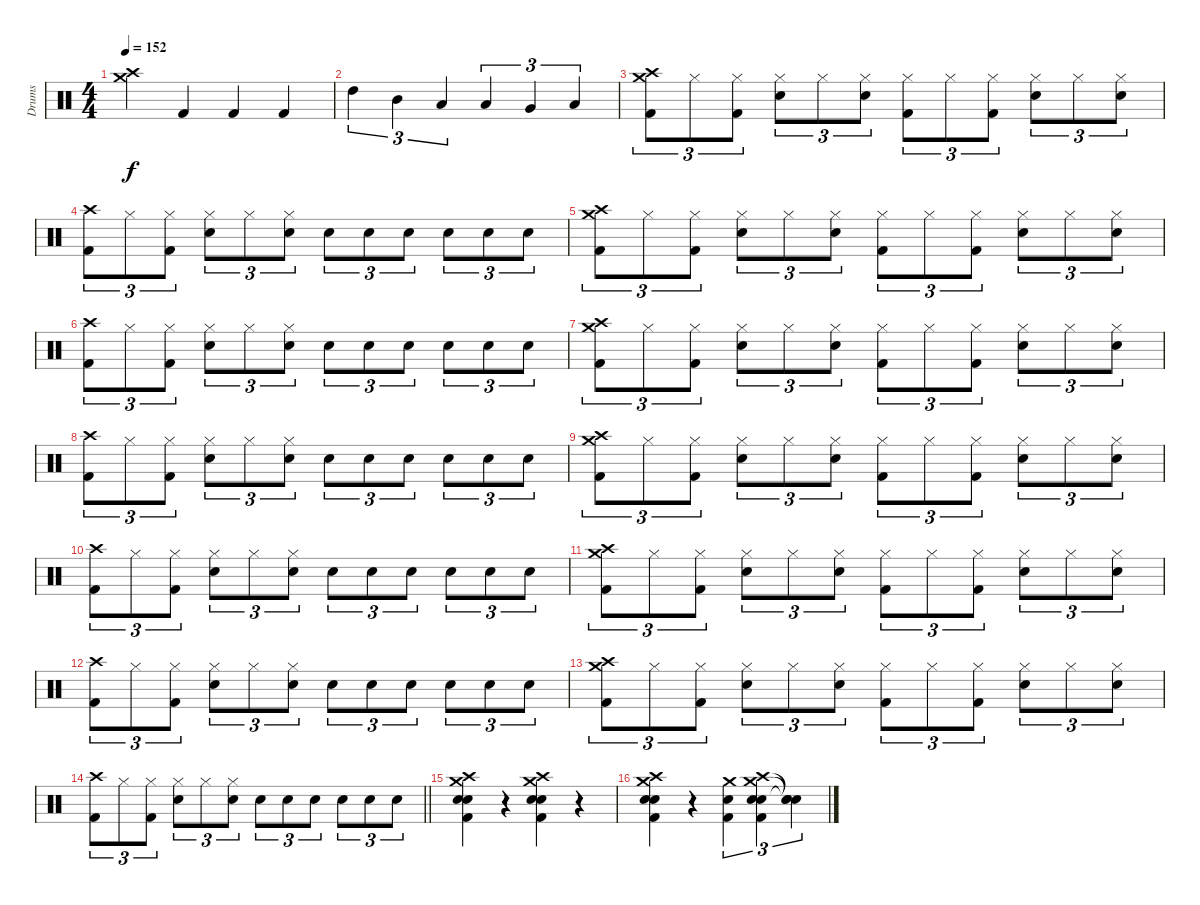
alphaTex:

\track ("Drums" "Drums") {instrument percussion}
\staff {score}
\articulation defaults
\ts (4 4)
\tempo 152
\clef neutral
\ks c
("Crash medium (hit)" "Crash high (hit)").4{dy f} "Kick (hit) 2".4 "Kick (hit) 2".4 "Kick (hit) 2".4 |
"High Tom (hit)".4{tu (3 2)} "Mid Tom (hit)".4{tu (3 2)} "Low Tom (hit)".4{tu (3 2)} "Low Tom (hit)".4{tu (3 2)} "Very Low Tom (hit)".4{tu (3 2)} "Low Floor Tom (hit)".4{tu (3 2)} |
("Crash medium (hit)" "Crash high (hit)" "Kick (hit) 2").8{tu (3 2)} "Hi-Hat (closed)".8{tu (3 2)} ("Hi-Hat (closed)" "Kick (hit) 2").8{tu (3 2)} ("Hi-Hat (closed)" "Snare (hit) 2").8{tu (3 2)} "Hi-Hat (closed)".8{tu (3 2)} ("Hi-Hat (closed)" "Snare (hit) 2").8{tu (3 2)} ("Hi-Hat (closed)" "Kick (hit) 2").8{tu (3 2)} "Hi-Hat (closed)".8{tu (3 2)} ("Hi-Hat (closed)" "Kick (hit) 2").8{tu (3 2)} ("Hi-Hat (closed)" "Snare (hit) 2").8{tu (3 2)} "Hi-Hat (closed)".8{tu (3 2)} ("Hi-Hat (closed)" "Snare (hit) 2").8{tu (3 2)} |
("Crash high (hit)" "Kick (hit) 2").8{tu (3 2)} "Hi-Hat (closed)".8{tu (3 2)} ("Hi-Hat (closed)" "Kick (hit) 2").8{tu (3 2)} ("Hi-Hat (closed)" "Snare (hit) 2").8{tu (3 2)} "Hi-Hat (closed)".8{tu (3 2)} ("Hi-Hat (closed)" "Snare (hit) 2").8{tu (3 2)} "Snare (hit) 2".8{tu (3 2)} "Snare (hit) 2".8{tu (3 2)} "Snare (hit) 2".8{tu (3 2)} "Snare (hit) 2".8{tu (3 2)} "Snare (hit) 2".8{tu (3 2)} "Snare (hit) 2".8{tu (3 2)} |
("Crash medium (hit)" "Crash high (hit)" "Kick (hit) 2").8{tu (3 2)} "Hi-Hat (closed)".8{tu (3 2)} ("Hi-Hat (closed)" "Kick (hit) 2").8{tu (3 2)} ("Hi-Hat (closed)" "Snare (hit) 2").8{tu (3 2)} "Hi-Hat (closed)".8{tu (3 2)} ("Hi-Hat (closed)" "Snare (hit) 2").8{tu (3 2)} ("Hi-Hat (closed)" "Kick (hit) 2").8{tu (3 2)} "Hi-Hat (closed)".8{tu (3 2)} ("Hi-Hat (closed)" "Kick (hit) 2").8{tu (3 2)} ("Hi-Hat (closed)" "Snare (hit) 2").8{tu (3 2)} "Hi-Hat (closed)".8{tu (3 2)} ("Hi-Hat (closed)" "Snare (hit) 2").8{tu (3 2)} |
("Crash high (hit)" "Kick (hit) 2").8{tu (3 2)} "Hi-Hat (closed)".8{tu (3 2)} ("Hi-Hat (closed)" "Kick (hit) 2").8{tu (3 2)} ("Hi-Hat (closed)" "Snare (hit) 2").8{tu (3 2)} "Hi-Hat (closed)".8{tu (3 2)} ("Hi-Hat (closed)" "Snare (hit) 2").8{tu (3 2)} "Snare (hit) 2".8{tu (3 2)} "Snare (hit) 2".8{tu (3 2)} "Snare (hit) 2".8{tu (3 2)} "Snare (hit) 2".8{tu (3 2)} "Snare (hit) 2".8{tu (3 2)} "Snare (hit) 2".8{tu (3 2)} |
("Crash medium (hit)" "Crash high (hit)" "Kick (hit) 2").8{tu (3 2)} "Hi-Hat (closed)".8{tu (3 2)} ("Hi-Hat (closed)" "Kick (hit) 2").8{tu (3 2)} ("Hi-Hat (closed)" "Snare (hit) 2").8{tu (3 2)} "Hi-Hat (closed)".8{tu (3 2)} ("Hi-Hat (closed)" "Snare (hit) 2").8{tu (3 2)} ("Hi-Hat (closed)" "Kick (hit) 2").8{tu (3 2)} "Hi-Hat (closed)".8{tu (3 2)} ("Hi-Hat (closed)" "Kick (hit) 2").8{tu (3 2)} ("Hi-Hat (closed)" "Snare (hit) 2").8{tu (3 2)} "Hi-Hat (closed)".8{tu (3 2)} ("Hi-Hat (closed)" "Snare (hit) 2").8{tu (3 2)} |
("Crash high (hit)" "Kick (hit) 2").8{tu (3 2)} "Hi-Hat (closed)".8{tu (3 2)} ("Hi-Hat (closed)" "Kick (hit) 2").8{tu (3 2)} ("Hi-Hat (closed)" "Snare (hit) 2").8{tu (3 2)} "Hi-Hat (closed)".8{tu (3 2)} ("Hi-Hat (closed)" "Snare (hit) 2").8{tu (3 2)} "Snare (hit) 2".8{tu (3 2)} "Snare (hit) 2".8{tu (3 2)} "Snare (hit) 2".8{tu (3 2)} "Snare (hit) 2".8{tu (3 2)} "Snare (hit) 2".8{tu (3 2)} "Snare (hit) 2".8{tu (3 2)} |
("Crash medium (hit)" "Crash high (hit)" "Kick (hit) 2").8{tu (3 2)} "Hi-Hat (closed)".8{tu (3 2)} ("Hi-Hat (closed)" "Kick (hit) 2").8{tu (3 2)} ("Hi-Hat (closed)" "Snare (hit) 2").8{tu (3 2)} "Hi-Hat (closed)".8{tu (3 2)} ("Hi-Hat (closed)" "Snare (hit) 2").8{tu (3 2)} ("Hi-Hat (closed)" "Kick (hit) 2").8{tu (3 2)} "Hi-Hat (closed)".8{tu (3 2)} ("Hi-Hat (closed)" "Kick (hit) 2").8{tu (3 2)} ("Hi-Hat (closed)" "Snare (hit) 2").8{tu (3 2)} "Hi-Hat (closed)".8{tu (3 2)} ("Hi-Hat (closed)" "Snare (hit) 2").8{tu (3 2)} |
("Crash high (hit)" "Kick (hit) 2").8{tu (3 2)} "Hi-Hat (closed)".8{tu (3 2)} ("Hi-Hat (closed)" "Kick (hit) 2").8{tu (3 2)} ("Hi-Hat (closed)" "Snare (hit) 2").8{tu (3 2)} "Hi-Hat (closed)".8{tu (3 2)} ("Hi-Hat (closed)" "Snare (hit) 2").8{tu (3 2)} "Snare (hit) 2".8{tu (3 2)} "Snare (hit) 2".8{tu (3 2)} "Snare (hit) 2".8{tu (3 2)} "Snare (hit) 2".8{tu (3 2)} "Snare (hit) 2".8{tu (3 2)} "Snare (hit) 2".8{tu (3 2)} |
("Crash medium (hit)" "Crash high (hit)" "Kick (hit) 2").8{tu (3 2)} "Hi-Hat (closed)".8{tu (3 2)} ("Hi-Hat (closed)" "Kick (hit) 2").8{tu (3 2)} ("Hi-Hat (closed)" "Snare (hit) 2").8{tu (3 2)} "Hi-Hat (closed)".8{tu (3 2)} ("Hi-Hat (closed)" "Snare (hit) 2").8{tu (3 2)} ("Hi-Hat (closed)" "Kick (hit) 2").8{tu (3 2)} "Hi-Hat (closed)".8{tu (3 2)} ("Hi-Hat (closed)" "Kick (hit) 2").8{tu (3 2)} ("Hi-Hat (closed)" "Snare (hit) 2").8{tu (3 2)} "Hi-Hat (closed)".8{tu (3 2)} ("Hi-Hat (closed)" "Snare (hit) 2").8{tu (3 2)} |
("Crash high (hit)" "Kick (hit) 2").8{tu (3 2)} "Hi-Hat (closed)".8{tu (3 2)} ("Hi-Hat (closed)" "Kick (hit) 2").8{tu (3 2)} ("Hi-Hat (closed)" "Snare (hit) 2").8{tu (3 2)} "Hi-Hat (closed)".8{tu (3 2)} ("Hi-Hat (closed)" "Snare (hit) 2").8{tu (3 2)} "Snare (hit) 2".8{tu (3 2)} "Snare (hit) 2".8{tu (3 2)} "Snare (hit) 2".8{tu (3 2)} "Snare (hit) 2".8{tu (3 2)} "Snare (hit) 2".8{tu (3 2)} "Snare (hit) 2".8{tu (3 2)} |
("Crash medium (hit)" "Crash high (hit)" "Kick (hit) 2").8{tu (3 2)} "Hi-Hat (closed)".8{tu (3 2)} ("Hi-Hat (closed)" "Kick (hit) 2").8{tu (3 2)} ("Hi-Hat (closed)" "Snare (hit) 2").8{tu (3 2)} "Hi-Hat (closed)".8{tu (3 2)} ("Hi-Hat (closed)" "Snare (hit) 2").8{tu (3 2)} ("Hi-Hat (closed)" "Kick (hit) 2").8{tu (3 2)} "Hi-Hat (closed)".8{tu (3 2)} ("Hi-Hat (closed)" "Kick (hit) 2").8{tu (3 2)} ("Hi-Hat (closed)" "Snare (hit) 2").8{tu (3 2)} "Hi-Hat (closed)".8{tu (3 2)} ("Hi-Hat (closed)" "Snare (hit) 2").8{tu (3 2)} |
\barLineRight lightlight
("Crash high (hit)" "Kick (hit) 2").8{tu (3 2)} "Hi-Hat (closed)".8{tu (3 2)} ("Hi-Hat (closed)" "Kick (hit) 2").8{tu (3 2)} ("Hi-Hat (closed)" "Snare (hit) 2").8{tu (3 2)} "Hi-Hat (closed)".8{tu (3 2)} ("Hi-Hat (closed)" "Snare (hit) 2").8{tu (3 2)} "Snare (hit) 2".8{tu (3 2)} "Snare (hit) 2".8{tu (3 2)} "Snare (hit) 2".8{tu (3 2)} "Snare (hit) 2".8{tu (3 2)} "Snare (hit) 2".8{tu (3 2)} "Snare (hit) 2".8{tu (3 2)} |
("Crash high (hit)" "Crash medium (hit)" "Snare (hit) 2" "Kick (hit) 2" "Snare (hit) 2").4 r.4 ("Crash high (hit)" "Crash medium (hit)" "Snare (hit) 2" "Kick (hit) 2" "Snare (hit) 2").4 r.4 |
("Crash high (hit)" "Crash medium (hit)" "Snare (hit) 2" "Kick (hit) 2" "Snare (hit) 2").4 r.4 ("Crash medium (hit)" "Kick (hit) 2" "Snare (hit) 2").4{tu (3 2)} ("Crash high (hit)" "Crash medium (hit)" "Snare (hit) 2" "Kick (hit) 2" "Snare (hit) 2").4{tu (3 2)} ("Snare (hit)"{t} "Snare (hit)"{t} "Snare (hit)"{t}).4{tu (3 2)}
